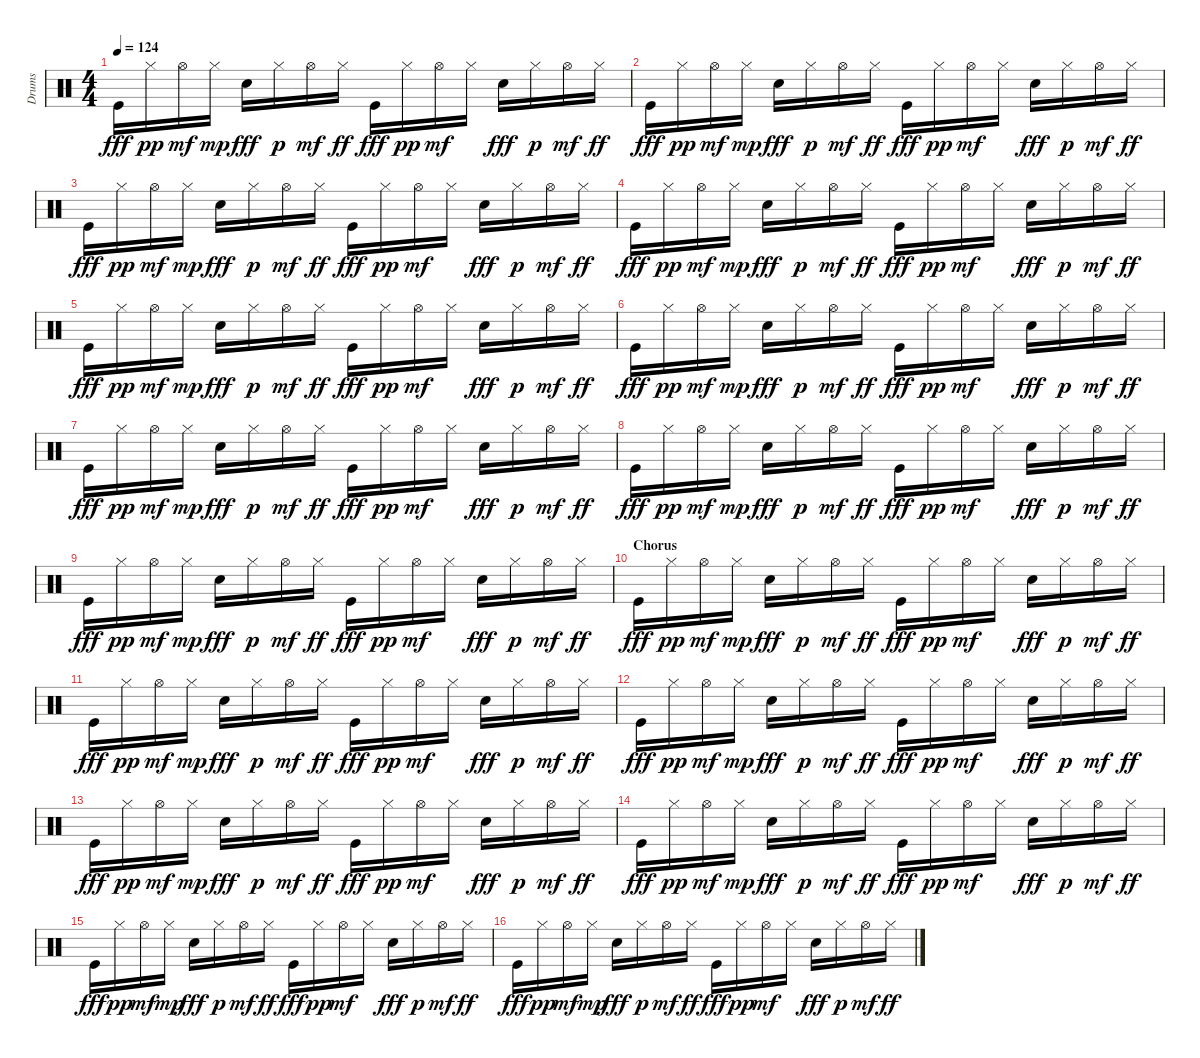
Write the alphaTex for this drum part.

\track ("Drums" "Drums") {instrument percussion}
\staff {score}
\articulation defaults
\ts (4 4)
\tempo 124
\clef neutral
\ks c "Kick (hit)".16{dy fff} "Hi-Hat (closed)".16{dy pp} "Hi-Hat (open)".16{dy mf} "Hi-Hat (closed)".16{dy mp} "Electric Snare (hit)".16{dy fff} "Hi-Hat (closed)".16{dy p} "Hi-Hat (open)".16{dy mf} "Hi-Hat (closed)".16{dy ff} "Kick (hit)".16{dy fff} "Hi-Hat (closed)".16{dy pp} "Hi-Hat (open)".16{dy mf} "Hi-Hat (closed)".16 "Electric Snare (hit)".16{dy fff} "Hi-Hat (closed)".16{dy p} "Hi-Hat (open)".16{dy mf} "Hi-Hat (closed)".16{dy ff}
|
"Kick (hit)".16{dy fff} "Hi-Hat (closed)".16{dy pp} "Hi-Hat (open)".16{dy mf} "Hi-Hat (closed)".16{dy mp} "Electric Snare (hit)".16{dy fff} "Hi-Hat (closed)".16{dy p} "Hi-Hat (open)".16{dy mf} "Hi-Hat (closed)".16{dy ff} "Kick (hit)".16{dy fff} "Hi-Hat (closed)".16{dy pp} "Hi-Hat (open)".16{dy mf} "Hi-Hat (closed)".16 "Electric Snare (hit)".16{dy fff} "Hi-Hat (closed)".16{dy p} "Hi-Hat (open)".16{dy mf} "Hi-Hat (closed)".16{dy ff} |
"Kick (hit)".16{dy fff} "Hi-Hat (closed)".16{dy pp} "Hi-Hat (open)".16{dy mf} "Hi-Hat (closed)".16{dy mp} "Electric Snare (hit)".16{dy fff} "Hi-Hat (closed)".16{dy p} "Hi-Hat (open)".16{dy mf} "Hi-Hat (closed)".16{dy ff} "Kick (hit)".16{dy fff} "Hi-Hat (closed)".16{dy pp} "Hi-Hat (open)".16{dy mf} "Hi-Hat (closed)".16 "Electric Snare (hit)".16{dy fff} "Hi-Hat (closed)".16{dy p} "Hi-Hat (open)".16{dy mf} "Hi-Hat (closed)".16{dy ff} |
"Kick (hit)".16{dy fff} "Hi-Hat (closed)".16{dy pp} "Hi-Hat (open)".16{dy mf} "Hi-Hat (closed)".16{dy mp} "Electric Snare (hit)".16{dy fff} "Hi-Hat (closed)".16{dy p} "Hi-Hat (open)".16{dy mf} "Hi-Hat (closed)".16{dy ff} "Kick (hit)".16{dy fff} "Hi-Hat (closed)".16{dy pp} "Hi-Hat (open)".16{dy mf} "Hi-Hat (closed)".16 "Electric Snare (hit)".16{dy fff} "Hi-Hat (closed)".16{dy p} "Hi-Hat (open)".16{dy mf} "Hi-Hat (closed)".16{dy ff} |
"Kick (hit)".16{dy fff} "Hi-Hat (closed)".16{dy pp} "Hi-Hat (open)".16{dy mf} "Hi-Hat (closed)".16{dy mp} "Electric Snare (hit)".16{dy fff} "Hi-Hat (closed)".16{dy p} "Hi-Hat (open)".16{dy mf} "Hi-Hat (closed)".16{dy ff} "Kick (hit)".16{dy fff} "Hi-Hat (closed)".16{dy pp} "Hi-Hat (open)".16{dy mf} "Hi-Hat (closed)".16 "Electric Snare (hit)".16{dy fff} "Hi-Hat (closed)".16{dy p} "Hi-Hat (open)".16{dy mf} "Hi-Hat (closed)".16{dy ff} |
"Kick (hit)".16{dy fff} "Hi-Hat (closed)".16{dy pp} "Hi-Hat (open)".16{dy mf} "Hi-Hat (closed)".16{dy mp} "Electric Snare (hit)".16{dy fff} "Hi-Hat (closed)".16{dy p} "Hi-Hat (open)".16{dy mf} "Hi-Hat (closed)".16{dy ff} "Kick (hit)".16{dy fff} "Hi-Hat (closed)".16{dy pp} "Hi-Hat (open)".16{dy mf} "Hi-Hat (closed)".16 "Electric Snare (hit)".16{dy fff} "Hi-Hat (closed)".16{dy p} "Hi-Hat (open)".16{dy mf} "Hi-Hat (closed)".16{dy ff} |
"Kick (hit)".16{dy fff} "Hi-Hat (closed)".16{dy pp} "Hi-Hat (open)".16{dy mf} "Hi-Hat (closed)".16{dy mp} "Electric Snare (hit)".16{dy fff} "Hi-Hat (closed)".16{dy p} "Hi-Hat (open)".16{dy mf} "Hi-Hat (closed)".16{dy ff} "Kick (hit)".16{dy fff} "Hi-Hat (closed)".16{dy pp} "Hi-Hat (open)".16{dy mf} "Hi-Hat (closed)".16 "Electric Snare (hit)".16{dy fff} "Hi-Hat (closed)".16{dy p} "Hi-Hat (open)".16{dy mf} "Hi-Hat (closed)".16{dy ff} |
"Kick (hit)".16{dy fff} "Hi-Hat (closed)".16{dy pp} "Hi-Hat (open)".16{dy mf} "Hi-Hat (closed)".16{dy mp} "Electric Snare (hit)".16{dy fff} "Hi-Hat (closed)".16{dy p} "Hi-Hat (open)".16{dy mf} "Hi-Hat (closed)".16{dy ff} "Kick (hit)".16{dy fff} "Hi-Hat (closed)".16{dy pp} "Hi-Hat (open)".16{dy mf} "Hi-Hat (closed)".16 "Electric Snare (hit)".16{dy fff} "Hi-Hat (closed)".16{dy p} "Hi-Hat (open)".16{dy mf} "Hi-Hat (closed)".16{dy ff} |
"Kick (hit)".16{dy fff} "Hi-Hat (closed)".16{dy pp} "Hi-Hat (open)".16{dy mf} "Hi-Hat (closed)".16{dy mp} "Electric Snare (hit)".16{dy fff} "Hi-Hat (closed)".16{dy p} "Hi-Hat (open)".16{dy mf} "Hi-Hat (closed)".16{dy ff} "Kick (hit)".16{dy fff} "Hi-Hat (closed)".16{dy pp} "Hi-Hat (open)".16{dy mf} "Hi-Hat (closed)".16 "Electric Snare (hit)".16{dy fff} "Hi-Hat (closed)".16{dy p} "Hi-Hat (open)".16{dy mf} "Hi-Hat (closed)".16{dy ff} |
\section ("" "Chorus")
"Kick (hit)".16{dy fff} "Hi-Hat (closed)".16{dy pp} "Hi-Hat (open)".16{dy mf} "Hi-Hat (closed)".16{dy mp} "Electric Snare (hit)".16{dy fff} "Hi-Hat (closed)".16{dy p} "Hi-Hat (open)".16{dy mf} "Hi-Hat (closed)".16{dy ff} "Kick (hit)".16{dy fff} "Hi-Hat (closed)".16{dy pp} "Hi-Hat (open)".16{dy mf} "Hi-Hat (closed)".16 "Electric Snare (hit)".16{dy fff} "Hi-Hat (closed)".16{dy p} "Hi-Hat (open)".16{dy mf} "Hi-Hat (closed)".16{dy ff} |
"Kick (hit)".16{dy fff} "Hi-Hat (closed)".16{dy pp} "Hi-Hat (open)".16{dy mf} "Hi-Hat (closed)".16{dy mp} "Electric Snare (hit)".16{dy fff} "Hi-Hat (closed)".16{dy p} "Hi-Hat (open)".16{dy mf} "Hi-Hat (closed)".16{dy ff} "Kick (hit)".16{dy fff} "Hi-Hat (closed)".16{dy pp} "Hi-Hat (open)".16{dy mf} "Hi-Hat (closed)".16 "Electric Snare (hit)".16{dy fff} "Hi-Hat (closed)".16{dy p} "Hi-Hat (open)".16{dy mf} "Hi-Hat (closed)".16{dy ff} |
"Kick (hit)".16{dy fff} "Hi-Hat (closed)".16{dy pp} "Hi-Hat (open)".16{dy mf} "Hi-Hat (closed)".16{dy mp} "Electric Snare (hit)".16{dy fff} "Hi-Hat (closed)".16{dy p} "Hi-Hat (open)".16{dy mf} "Hi-Hat (closed)".16{dy ff} "Kick (hit)".16{dy fff} "Hi-Hat (closed)".16{dy pp} "Hi-Hat (open)".16{dy mf} "Hi-Hat (closed)".16 "Electric Snare (hit)".16{dy fff} "Hi-Hat (closed)".16{dy p} "Hi-Hat (open)".16{dy mf} "Hi-Hat (closed)".16{dy ff} |
"Kick (hit)".16{dy fff} "Hi-Hat (closed)".16{dy pp} "Hi-Hat (open)".16{dy mf} "Hi-Hat (closed)".16{dy mp} "Electric Snare (hit)".16{dy fff} "Hi-Hat (closed)".16{dy p} "Hi-Hat (open)".16{dy mf} "Hi-Hat (closed)".16{dy ff} "Kick (hit)".16{dy fff} "Hi-Hat (closed)".16{dy pp} "Hi-Hat (open)".16{dy mf} "Hi-Hat (closed)".16 "Electric Snare (hit)".16{dy fff} "Hi-Hat (closed)".16{dy p} "Hi-Hat (open)".16{dy mf} "Hi-Hat (closed)".16{dy ff} |
"Kick (hit)".16{dy fff} "Hi-Hat (closed)".16{dy pp} "Hi-Hat (open)".16{dy mf} "Hi-Hat (closed)".16{dy mp} "Electric Snare (hit)".16{dy fff} "Hi-Hat (closed)".16{dy p} "Hi-Hat (open)".16{dy mf} "Hi-Hat (closed)".16{dy ff} "Kick (hit)".16{dy fff} "Hi-Hat (closed)".16{dy pp} "Hi-Hat (open)".16{dy mf} "Hi-Hat (closed)".16 "Electric Snare (hit)".16{dy fff} "Hi-Hat (closed)".16{dy p} "Hi-Hat (open)".16{dy mf} "Hi-Hat (closed)".16{dy ff} |
"Kick (hit)".16{dy fff} "Hi-Hat (closed)".16{dy pp} "Hi-Hat (open)".16{dy mf} "Hi-Hat (closed)".16{dy mp} "Electric Snare (hit)".16{dy fff} "Hi-Hat (closed)".16{dy p} "Hi-Hat (open)".16{dy mf} "Hi-Hat (closed)".16{dy ff} "Kick (hit)".16{dy fff} "Hi-Hat (closed)".16{dy pp} "Hi-Hat (open)".16{dy mf} "Hi-Hat (closed)".16 "Electric Snare (hit)".16{dy fff} "Hi-Hat (closed)".16{dy p} "Hi-Hat (open)".16{dy mf} "Hi-Hat (closed)".16{dy ff} |
"Kick (hit)".16{dy fff} "Hi-Hat (closed)".16{dy pp} "Hi-Hat (open)".16{dy mf} "Hi-Hat (closed)".16{dy mp} "Electric Snare (hit)".16{dy fff} "Hi-Hat (closed)".16{dy p} "Hi-Hat (open)".16{dy mf} "Hi-Hat (closed)".16{dy ff} "Kick (hit)".16{dy fff} "Hi-Hat (closed)".16{dy pp} "Hi-Hat (open)".16{dy mf} "Hi-Hat (closed)".16 "Electric Snare (hit)".16{dy fff} "Hi-Hat (closed)".16{dy p} "Hi-Hat (open)".16{dy mf} "Hi-Hat (closed)".16{dy ff}
